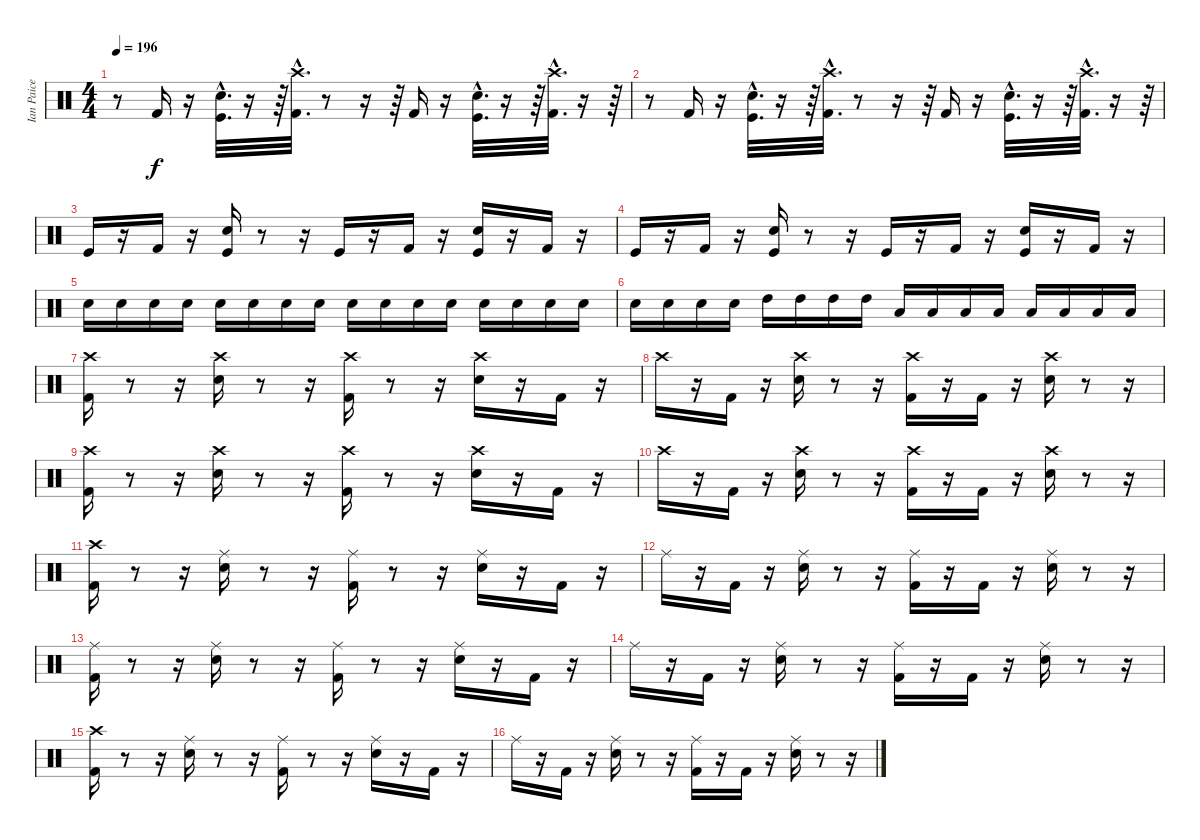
\track ("Ian Paice" "Ian Paice") {instrument percussion}
\staff {score}
\articulation defaults
\ts (4 4)
\tempo 196
\clef neutral
\ks c
r.8{dy f} "Kick (hit) 2".16 r.16 ("Kick (hit)"{hac} "Snare (hit) 2"{hac}).32{d} r.16 r.64 ("Kick (hit) 2"{hac} "Crash high (hit)"{hac}).32{d} r.8 r.16 r.64 "Kick (hit) 2".16 r.16 ("Kick (hit)"{hac} "Snare (hit) 2"{hac}).32{d} r.16 r.64 ("Kick (hit) 2"{hac} "Crash high (hit)"{hac}).32{d} r.16 r.64 |
r.8 "Kick (hit) 2".16 r.16 ("Kick (hit)"{hac} "Snare (hit) 2"{hac}).32{d} r.16 r.64 ("Kick (hit) 2"{hac} "Crash high (hit)"{hac}).32{d} r.8 r.16 r.64 "Kick (hit) 2".16 r.16 ("Kick (hit)"{hac} "Snare (hit) 2"{hac}).32{d} r.16 r.64 ("Kick (hit) 2"{hac} "Crash high (hit)"{hac}).32{d} r.16 r.64 |
"Kick (hit)".16 r.16 "Kick (hit) 2".16 r.16 ("Kick (hit)" "Snare (hit) 2").16 r.8 r.16 "Kick (hit)".16 r.16 "Kick (hit) 2".16 r.16 ("Kick (hit)" "Snare (hit) 2").16 r.16 "Kick (hit) 2".16 r.16 |
"Kick (hit)".16 r.16 "Kick (hit) 2".16 r.16 ("Kick (hit)" "Snare (hit) 2").16 r.8 r.16 "Kick (hit)".16 r.16 "Kick (hit) 2".16 r.16 ("Kick (hit)" "Snare (hit) 2").16 r.16 "Kick (hit) 2".16 r.16 |
"Snare (hit) 2".16 "Snare (hit) 2".16 "Snare (hit) 2".16 "Snare (hit) 2".16 "Snare (hit) 2".16 "Snare (hit) 2".16 "Snare (hit) 2".16 "Snare (hit) 2".16 "Snare (hit) 2".16 "Snare (hit) 2".16 "Snare (hit) 2".16 "Snare (hit) 2".16 "Snare (hit) 2".16 "Snare (hit) 2".16 "Snare (hit) 2".16 "Snare (hit) 2".16 |
"Snare (hit) 2".16 "Snare (hit) 2".16 "Snare (hit) 2".16 "Snare (hit) 2".16 "High Tom (hit)".16 "High Tom (hit)".16 "High Tom (hit)".16 "High Tom (hit)".16 "Low Tom (hit)".16 "Low Tom (hit)".16 "Low Tom (hit)".16 "Low Tom (hit)".16 "Low Floor Tom (hit)".16 "Low Floor Tom (hit)".16 "Low Floor Tom (hit)".16 "Low Floor Tom (hit)".16 |
("Crash high (hit)" "Kick (hit) 2").16 r.8 r.16 ("Crash high (hit)" "Snare (hit) 2").16 r.8 r.16 ("Crash high (hit)" "Kick (hit) 2").16 r.8 r.16 ("Crash high (hit)" "Snare (hit) 2").16 r.16 "Kick (hit) 2".16 r.16 |
"Crash high (hit)".16 r.16 "Kick (hit) 2".16 r.16 ("Crash high (hit)" "Snare (hit) 2").16 r.8 r.16 ("Crash high (hit)" "Kick (hit) 2").16 r.16 "Kick (hit) 2".16 r.16 ("Crash high (hit)" "Snare (hit) 2").16 r.8 r.16 |
("Kick (hit) 2" "Crash high (hit)").16 r.8 r.16 ("Crash high (hit)" "Snare (hit) 2").16 r.8 r.16 ("Crash high (hit)" "Kick (hit) 2").16 r.8 r.16 ("Crash high (hit)" "Snare (hit) 2").16 r.16 "Kick (hit) 2".16 r.16 |
"Crash high (hit)".16 r.16 "Kick (hit) 2".16 r.16 ("Crash high (hit)" "Snare (hit) 2").16 r.8 r.16 ("Crash high (hit)" "Kick (hit) 2").16 r.16 "Kick (hit) 2".16 r.16 ("Crash high (hit)" "Snare (hit) 2").16 r.8 r.16 |
("Kick (hit) 2" "Crash high (hit)").16 r.8 r.16 ("Snare (hit) 2" "Ride (middle)").16 r.8 r.16 ("Kick (hit) 2" "Ride (middle)").16 r.8 r.16 ("Snare (hit) 2" "Ride (middle)").16 r.16 "Kick (hit) 2".16 r.16 |
"Ride (middle)".16 r.16 "Kick (hit) 2".16 r.16 ("Snare (hit) 2" "Ride (middle)").16 r.8 r.16 ("Kick (hit) 2" "Ride (middle)").16 r.16 "Kick (hit) 2".16 r.16 ("Snare (hit) 2" "Ride (middle)").16 r.8 r.16 |
("Kick (hit) 2" "Ride (middle)").16 r.8 r.16 ("Snare (hit) 2" "Ride (middle)").16 r.8 r.16 ("Kick (hit) 2" "Ride (middle)").16 r.8 r.16 ("Snare (hit) 2" "Ride (middle)").16 r.16 "Kick (hit) 2".16 r.16 |
"Ride (middle)".16 r.16 "Kick (hit) 2".16 r.16 ("Snare (hit) 2" "Ride (middle)").16 r.8 r.16 ("Kick (hit) 2" "Ride (middle)").16 r.16 "Kick (hit) 2".16 r.16 ("Snare (hit) 2" "Ride (middle)").16 r.8 r.16 |
("Kick (hit) 2" "Crash high (hit)").16 r.8 r.16 ("Snare (hit) 2" "Ride (middle)").16 r.8 r.16 ("Kick (hit) 2" "Ride (middle)").16 r.8 r.16 ("Snare (hit) 2" "Ride (middle)").16 r.16 "Kick (hit) 2".16 r.16 |
"Ride (middle)".16 r.16 "Kick (hit) 2".16 r.16 ("Snare (hit) 2" "Ride (middle)").16 r.8 r.16 ("Kick (hit) 2" "Ride (middle)").16 r.16 "Kick (hit) 2".16 r.16 ("Snare (hit) 2" "Ride (middle)").16 r.8 r.16
